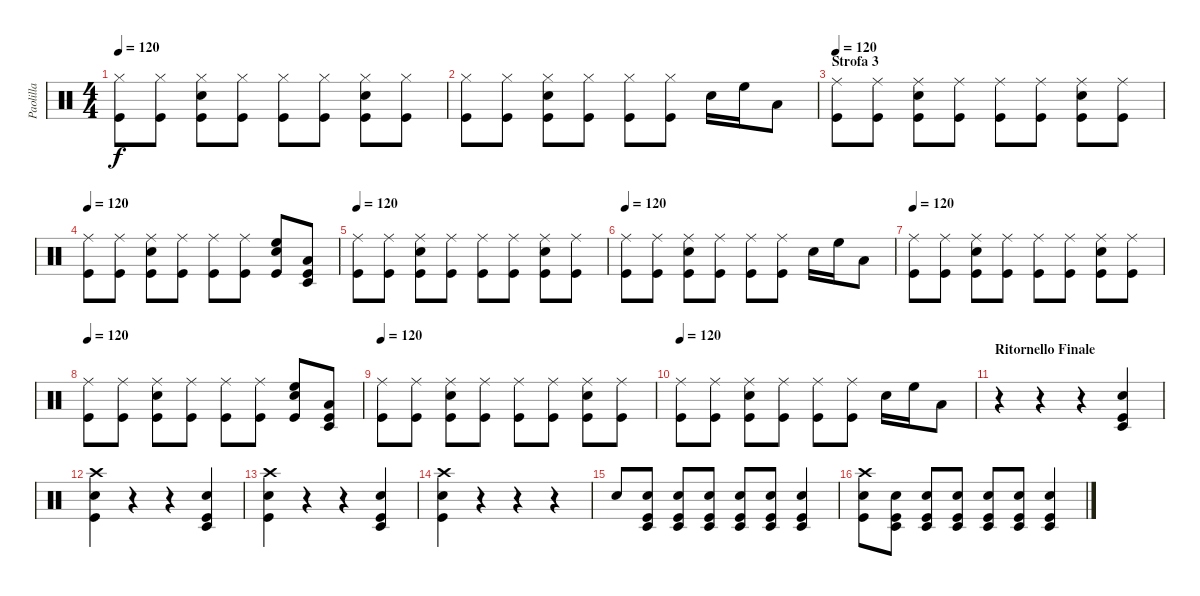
\track ("Paolilla" "Paolilla") {instrument percussion}
\staff {score}
\articulation defaults
\ts (4 4)
\tempo 120
\clef neutral
\ks c
("Hi-Hat (closed)" "Kick (hit)").8{dy f} ("Hi-Hat (closed)" "Kick (hit)").8 ("Hi-Hat (closed)" "Snare (hit) 2" "Kick (hit)").8 ("Hi-Hat (closed)" "Kick (hit)").8 ("Hi-Hat (closed)" "Kick (hit)").8 ("Hi-Hat (closed)" "Kick (hit)").8 ("Hi-Hat (closed)" "Snare (hit) 2" "Kick (hit)").8 ("Hi-Hat (closed)" "Kick (hit)").8 |
("Hi-Hat (closed)" "Kick (hit)").8 ("Hi-Hat (closed)" "Kick (hit)").8 ("Hi-Hat (closed)" "Snare (hit) 2" "Kick (hit)").8 ("Hi-Hat (closed)" "Kick (hit)").8 ("Hi-Hat (closed)" "Kick (hit)").8 ("Hi-Hat (closed)" "Kick (hit)").8 "Snare (hit) 2".16 "High Floor Tom (hit)".16 "Low Tom (hit)".8 |
\section ("" "Strofa 3")
\tempo 120
("Ride (middle)" "Kick (hit)").8 ("Ride (middle)" "Kick (hit)").8 ("Ride (middle)" "Snare (hit) 2" "Kick (hit)").8 ("Ride (middle)" "Kick (hit)").8 ("Ride (middle)" "Kick (hit)").8 ("Ride (middle)" "Kick (hit)").8 ("Ride (middle)" "Snare (hit) 2" "Kick (hit)").8 ("Ride (middle)" "Kick (hit)").8 |
\tempo 120
("Ride (middle)" "Kick (hit)").8 ("Ride (middle)" "Kick (hit)").8 ("Ride (middle)" "Snare (hit) 2" "Kick (hit)").8 ("Ride (middle)" "Kick (hit)").8 ("Ride (middle)" "Kick (hit)").8 ("Ride (middle)" "Kick (hit)").8 ("Snare (hit) 2" "High Floor Tom (hit)" "Kick (hit)").8 ("Timbale low (hit)" "Low Tom (hit)" "Kick (hit)").8 |
\tempo 120
("Ride (middle)" "Kick (hit)").8 ("Ride (middle)" "Kick (hit)").8 ("Ride (middle)" "Snare (hit) 2" "Kick (hit)").8 ("Ride (middle)" "Kick (hit)").8 ("Ride (middle)" "Kick (hit)").8 ("Ride (middle)" "Kick (hit)").8 ("Ride (middle)" "Snare (hit) 2" "Kick (hit)").8 ("Ride (middle)" "Kick (hit)").8 |
\tempo 120
("Ride (middle)" "Kick (hit)").8 ("Ride (middle)" "Kick (hit)").8 ("Ride (middle)" "Snare (hit) 2" "Kick (hit)").8 ("Ride (middle)" "Kick (hit)").8 ("Ride (middle)" "Kick (hit)").8 ("Ride (middle)" "Kick (hit)").8 "Snare (hit) 2".16 "High Floor Tom (hit)".16 "Low Tom (hit)".8 |
\tempo 120
("Ride (middle)" "Kick (hit)").8 ("Ride (middle)" "Kick (hit)").8 ("Ride (middle)" "Snare (hit) 2" "Kick (hit)").8 ("Ride (middle)" "Kick (hit)").8 ("Ride (middle)" "Kick (hit)").8 ("Ride (middle)" "Kick (hit)").8 ("Ride (middle)" "Snare (hit) 2" "Kick (hit)").8 ("Ride (middle)" "Kick (hit)").8 |
\tempo 120
("Ride (middle)" "Kick (hit)").8 ("Ride (middle)" "Kick (hit)").8 ("Ride (middle)" "Snare (hit) 2" "Kick (hit)").8 ("Ride (middle)" "Kick (hit)").8 ("Ride (middle)" "Kick (hit)").8 ("Ride (middle)" "Kick (hit)").8 ("Snare (hit) 2" "High Floor Tom (hit)" "Kick (hit)").8 ("Timbale low (hit)" "Low Tom (hit)" "Kick (hit)").8 |
\tempo 120
("Ride (middle)" "Kick (hit)").8 ("Ride (middle)" "Kick (hit)").8 ("Ride (middle)" "Snare (hit) 2" "Kick (hit)").8 ("Ride (middle)" "Kick (hit)").8 ("Ride (middle)" "Kick (hit)").8 ("Ride (middle)" "Kick (hit)").8 ("Ride (middle)" "Snare (hit) 2" "Kick (hit)").8 ("Ride (middle)" "Kick (hit)").8 |
\tempo 120
("Ride (middle)" "Kick (hit)").8 ("Ride (middle)" "Kick (hit)").8 ("Ride (middle)" "Snare (hit) 2" "Kick (hit)").8 ("Ride (middle)" "Kick (hit)").8 ("Ride (middle)" "Kick (hit)").8 ("Ride (middle)" "Kick (hit)").8 "Snare (hit) 2".16 "High Floor Tom (hit)".16 "Low Tom (hit)".8 |
\section ("" "Ritornello Finale")
r.4 r.4 r.4 ("Timbale low (hit)" "Snare (hit) 2" "Kick (hit)").4 |
("Kick (hit)" "Crash high (hit)" "Snare (hit) 2").4 r.4 r.4 ("Timbale low (hit)" "Snare (hit) 2" "Kick (hit)").4 |
("Kick (hit)" "Crash high (hit)" "Snare (hit) 2").4 r.4 r.4 ("Timbale low (hit)" "Snare (hit) 2" "Kick (hit)").4 |
("Kick (hit)" "Crash high (hit)" "Snare (hit) 2").4 r.4 r.4 r.4 |
"Snare (hit) 2".8 ("Kick (hit)" "Timbale low (hit)" "Snare (hit) 2").8{volume 4} ("Kick (hit)" "Timbale low (hit)" "Snare (hit) 2").8{volume 5} ("Kick (hit)" "Timbale low (hit)" "Snare (hit) 2").8{volume 7} ("Kick (hit)" "Timbale low (hit)" "Snare (hit) 2").8{volume 9} ("Kick (hit)" "Timbale low (hit)" "Snare (hit) 2").8{volume 11} ("Timbale low (hit)" "Snare (hit) 2" "Kick (hit)").4{volume 16} |
("Kick (hit)" "Crash high (hit)" "Snare (hit) 2").8 ("Kick (hit)" "Timbale low (hit)" "Snare (hit) 2").8{volume 4} ("Kick (hit)" "Timbale low (hit)" "Snare (hit) 2").8{volume 5} ("Kick (hit)" "Timbale low (hit)" "Snare (hit) 2").8{volume 7} ("Kick (hit)" "Timbale low (hit)" "Snare (hit) 2").8{volume 9} ("Kick (hit)" "Timbale low (hit)" "Snare (hit) 2").8{volume 11} ("Timbale low (hit)" "Snare (hit) 2" "Kick (hit)").4{volume 16}
